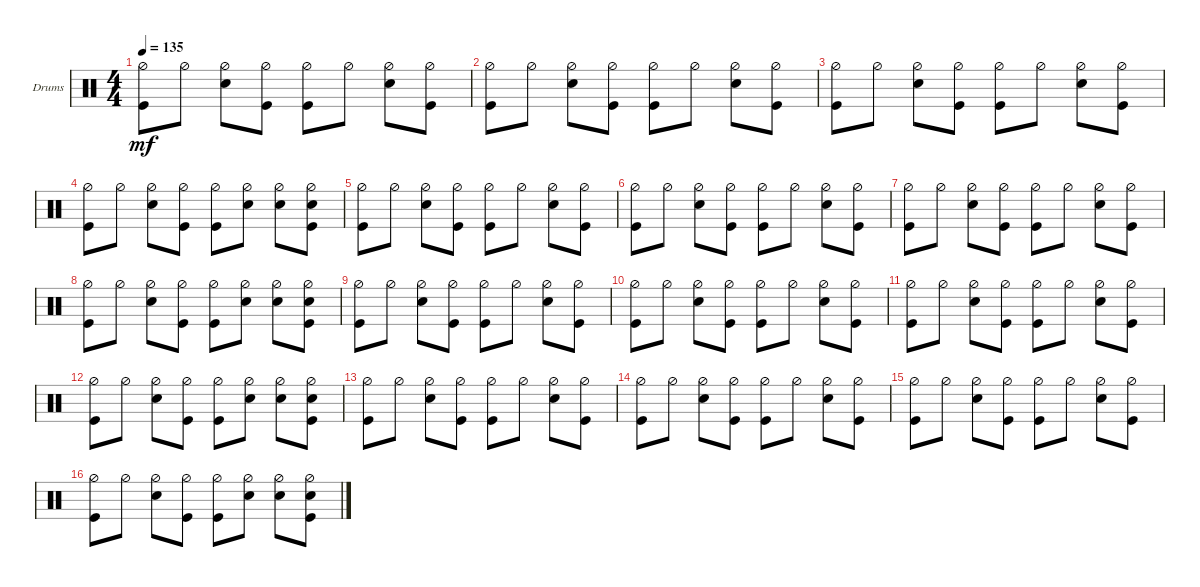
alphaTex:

\defaultSystemsLayout 4
\bracketExtendMode groupsimilarinstruments
\firstSystemTrackNameOrientation horizontal
\otherSystemsTrackNameOrientation horizontal
\track ("Drumkit" "Drums") {solo instrument percussion}
\staff {score}
\articulation defaults
\ts (4 4)
\tempo 135
\clef neutral
\ks c
("Kick (hit)" "Hi-Hat (half)").8{dy mf} "Hi-Hat (half)".8 ("Snare (hit) 2" "Hi-Hat (half)").8 ("Kick (hit)" "Hi-Hat (half)").8 ("Kick (hit)" "Hi-Hat (half)").8 "Hi-Hat (half)".8 ("Snare (hit) 2" "Hi-Hat (half)").8 ("Kick (hit)" "Hi-Hat (half)").8 |
("Kick (hit)" "Hi-Hat (half)").8 "Hi-Hat (half)".8 ("Snare (hit) 2" "Hi-Hat (half)").8 ("Kick (hit)" "Hi-Hat (half)").8 ("Kick (hit)" "Hi-Hat (half)").8 "Hi-Hat (half)".8 ("Snare (hit) 2" "Hi-Hat (half)").8 ("Kick (hit)" "Hi-Hat (half)").8 |
("Kick (hit)" "Hi-Hat (half)").8 "Hi-Hat (half)".8 ("Snare (hit) 2" "Hi-Hat (half)").8 ("Kick (hit)" "Hi-Hat (half)").8 ("Kick (hit)" "Hi-Hat (half)").8 "Hi-Hat (half)".8 ("Snare (hit) 2" "Hi-Hat (half)").8 ("Kick (hit)" "Hi-Hat (half)").8 |
("Kick (hit)" "Hi-Hat (half)").8 "Hi-Hat (half)".8 ("Snare (hit) 2" "Hi-Hat (half)").8 ("Kick (hit)" "Hi-Hat (half)").8 ("Kick (hit)" "Hi-Hat (half)").8 ("Hi-Hat (half)" "Snare (hit) 2").8 ("Snare (hit) 2" "Hi-Hat (half)").8 ("Kick (hit)" "Hi-Hat (half)" "Snare (hit) 2").8 |
("Kick (hit)" "Hi-Hat (half)").8 "Hi-Hat (half)".8 ("Snare (hit) 2" "Hi-Hat (half)").8 ("Kick (hit)" "Hi-Hat (half)").8 ("Kick (hit)" "Hi-Hat (half)").8 "Hi-Hat (half)".8 ("Snare (hit) 2" "Hi-Hat (half)").8 ("Kick (hit)" "Hi-Hat (half)").8 |
("Kick (hit)" "Hi-Hat (half)").8 "Hi-Hat (half)".8 ("Snare (hit) 2" "Hi-Hat (half)").8 ("Kick (hit)" "Hi-Hat (half)").8 ("Kick (hit)" "Hi-Hat (half)").8 "Hi-Hat (half)".8 ("Snare (hit) 2" "Hi-Hat (half)").8 ("Kick (hit)" "Hi-Hat (half)").8 |
("Kick (hit)" "Hi-Hat (half)").8 "Hi-Hat (half)".8 ("Snare (hit) 2" "Hi-Hat (half)").8 ("Kick (hit)" "Hi-Hat (half)").8 ("Kick (hit)" "Hi-Hat (half)").8 "Hi-Hat (half)".8 ("Snare (hit) 2" "Hi-Hat (half)").8 ("Kick (hit)" "Hi-Hat (half)").8 |
("Kick (hit)" "Hi-Hat (half)").8 "Hi-Hat (half)".8 ("Snare (hit) 2" "Hi-Hat (half)").8 ("Kick (hit)" "Hi-Hat (half)").8 ("Kick (hit)" "Hi-Hat (half)").8 ("Hi-Hat (half)" "Snare (hit) 2").8 ("Snare (hit) 2" "Hi-Hat (half)").8 ("Kick (hit)" "Hi-Hat (half)" "Snare (hit) 2").8 |
("Kick (hit)" "Hi-Hat (half)").8 "Hi-Hat (half)".8 ("Snare (hit) 2" "Hi-Hat (half)").8 ("Kick (hit)" "Hi-Hat (half)").8 ("Kick (hit)" "Hi-Hat (half)").8 "Hi-Hat (half)".8 ("Snare (hit) 2" "Hi-Hat (half)").8 ("Kick (hit)" "Hi-Hat (half)").8 |
("Kick (hit)" "Hi-Hat (half)").8 "Hi-Hat (half)".8 ("Snare (hit) 2" "Hi-Hat (half)").8 ("Kick (hit)" "Hi-Hat (half)").8 ("Kick (hit)" "Hi-Hat (half)").8 "Hi-Hat (half)".8 ("Snare (hit) 2" "Hi-Hat (half)").8 ("Kick (hit)" "Hi-Hat (half)").8 |
("Kick (hit)" "Hi-Hat (half)").8 "Hi-Hat (half)".8 ("Snare (hit) 2" "Hi-Hat (half)").8 ("Kick (hit)" "Hi-Hat (half)").8 ("Kick (hit)" "Hi-Hat (half)").8 "Hi-Hat (half)".8 ("Snare (hit) 2" "Hi-Hat (half)").8 ("Kick (hit)" "Hi-Hat (half)").8 |
("Kick (hit)" "Hi-Hat (half)").8 "Hi-Hat (half)".8 ("Snare (hit) 2" "Hi-Hat (half)").8 ("Kick (hit)" "Hi-Hat (half)").8 ("Kick (hit)" "Hi-Hat (half)").8 ("Hi-Hat (half)" "Snare (hit) 2").8 ("Snare (hit) 2" "Hi-Hat (half)").8 ("Kick (hit)" "Hi-Hat (half)" "Snare (hit) 2").8 |
("Kick (hit)" "Hi-Hat (half)").8 "Hi-Hat (half)".8 ("Snare (hit) 2" "Hi-Hat (half)").8 ("Kick (hit)" "Hi-Hat (half)").8 ("Kick (hit)" "Hi-Hat (half)").8 "Hi-Hat (half)".8 ("Snare (hit) 2" "Hi-Hat (half)").8 ("Kick (hit)" "Hi-Hat (half)").8 |
("Kick (hit)" "Hi-Hat (half)").8 "Hi-Hat (half)".8 ("Snare (hit) 2" "Hi-Hat (half)").8 ("Kick (hit)" "Hi-Hat (half)").8 ("Kick (hit)" "Hi-Hat (half)").8 "Hi-Hat (half)".8 ("Snare (hit) 2" "Hi-Hat (half)").8 ("Kick (hit)" "Hi-Hat (half)").8 |
("Kick (hit)" "Hi-Hat (half)").8 "Hi-Hat (half)".8 ("Snare (hit) 2" "Hi-Hat (half)").8 ("Kick (hit)" "Hi-Hat (half)").8 ("Kick (hit)" "Hi-Hat (half)").8 "Hi-Hat (half)".8 ("Snare (hit) 2" "Hi-Hat (half)").8 ("Kick (hit)" "Hi-Hat (half)").8 |
("Kick (hit)" "Hi-Hat (half)").8 "Hi-Hat (half)".8 ("Snare (hit) 2" "Hi-Hat (half)").8 ("Kick (hit)" "Hi-Hat (half)").8 ("Kick (hit)" "Hi-Hat (half)").8 ("Hi-Hat (half)" "Snare (hit) 2").8 ("Snare (hit) 2" "Hi-Hat (half)").8 ("Kick (hit)" "Hi-Hat (half)" "Snare (hit) 2").8
